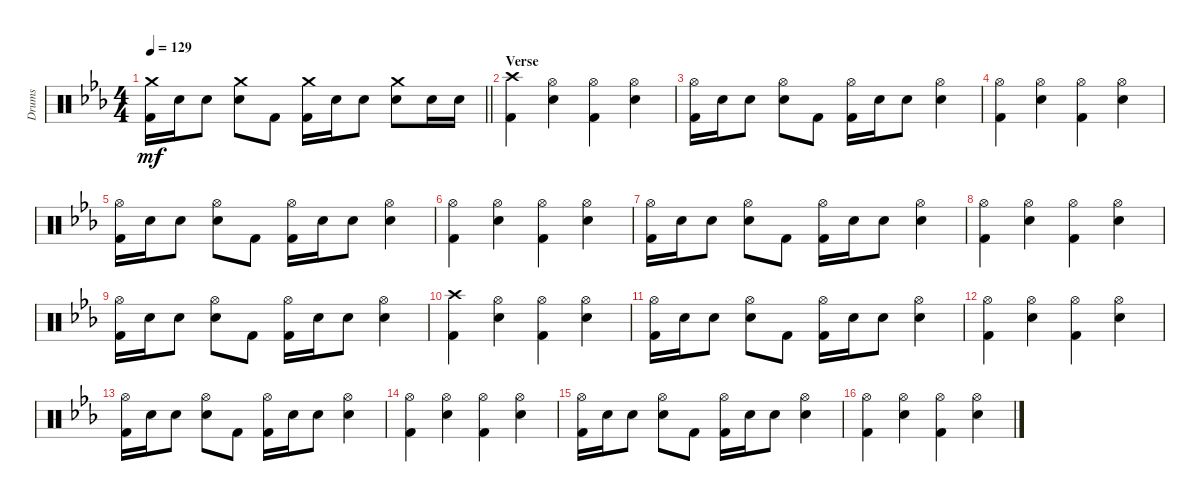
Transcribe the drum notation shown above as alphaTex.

\track ("Drums" "Drums") {instrument percussion}
\staff {score}
\articulation defaults
\ts (4 4)
\tempo 129
\clef neutral
\barLineRight lightlight
\ks eb
("Crash medium (hit)" "Kick (hit) 2").16{dy mf} "Electric Snare (hit)".16 "Electric Snare (hit)".8 ("Crash medium (hit)" "Electric Snare (hit)").8 "Kick (hit) 2".8 ("Crash medium (hit)" "Kick (hit) 2").16 "Electric Snare (hit)".16 "Electric Snare (hit)".8 ("Crash medium (hit)" "Electric Snare (hit)").8 "Electric Snare (hit)".16 "Electric Snare (hit)".16 |
\section ("" "Verse")
("Crash high (hit)" "Kick (hit) 2").4 ("Hi-Hat (open)" "Electric Snare (hit)").4 ("Hi-Hat (open)" "Kick (hit) 2").4 ("Hi-Hat (open)" "Electric Snare (hit)").4 |
("Hi-Hat (open)" "Kick (hit) 2").16 "Electric Snare (hit)".16 "Electric Snare (hit)".8 ("Hi-Hat (open)" "Electric Snare (hit)").8 "Kick (hit) 2".8 ("Hi-Hat (open)" "Kick (hit) 2").16 "Electric Snare (hit)".16 "Electric Snare (hit)".8 ("Hi-Hat (open)" "Electric Snare (hit)").4 |
("Hi-Hat (open)" "Kick (hit) 2").4 ("Hi-Hat (open)" "Electric Snare (hit)").4 ("Hi-Hat (open)" "Kick (hit) 2").4 ("Hi-Hat (open)" "Electric Snare (hit)").4 |
("Hi-Hat (open)" "Kick (hit) 2").16 "Electric Snare (hit)".16 "Electric Snare (hit)".8 ("Hi-Hat (open)" "Electric Snare (hit)").8 "Kick (hit) 2".8 ("Hi-Hat (open)" "Kick (hit) 2").16 "Electric Snare (hit)".16 "Electric Snare (hit)".8 ("Hi-Hat (open)" "Electric Snare (hit)").4 |
("Hi-Hat (open)" "Kick (hit) 2").4 ("Hi-Hat (open)" "Electric Snare (hit)").4 ("Hi-Hat (open)" "Kick (hit) 2").4 ("Hi-Hat (open)" "Electric Snare (hit)").4 |
("Hi-Hat (open)" "Kick (hit) 2").16 "Electric Snare (hit)".16 "Electric Snare (hit)".8 ("Hi-Hat (open)" "Electric Snare (hit)").8 "Kick (hit) 2".8 ("Hi-Hat (open)" "Kick (hit) 2").16 "Electric Snare (hit)".16 "Electric Snare (hit)".8 ("Hi-Hat (open)" "Electric Snare (hit)").4 |
("Hi-Hat (open)" "Kick (hit) 2").4 ("Hi-Hat (open)" "Electric Snare (hit)").4 ("Hi-Hat (open)" "Kick (hit) 2").4 ("Hi-Hat (open)" "Electric Snare (hit)").4 |
("Hi-Hat (open)" "Kick (hit) 2").16 "Electric Snare (hit)".16 "Electric Snare (hit)".8 ("Hi-Hat (open)" "Electric Snare (hit)").8 "Kick (hit) 2".8 ("Hi-Hat (open)" "Kick (hit) 2").16 "Electric Snare (hit)".16 "Electric Snare (hit)".8 ("Hi-Hat (open)" "Electric Snare (hit)").4 |
("Crash high (hit)" "Kick (hit) 2").4 ("Hi-Hat (open)" "Electric Snare (hit)").4 ("Hi-Hat (open)" "Kick (hit) 2").4 ("Hi-Hat (open)" "Electric Snare (hit)").4 |
("Hi-Hat (open)" "Kick (hit) 2").16 "Electric Snare (hit)".16 "Electric Snare (hit)".8 ("Hi-Hat (open)" "Electric Snare (hit)").8 "Kick (hit) 2".8 ("Hi-Hat (open)" "Kick (hit) 2").16 "Electric Snare (hit)".16 "Electric Snare (hit)".8 ("Hi-Hat (open)" "Electric Snare (hit)").4 |
("Hi-Hat (open)" "Kick (hit) 2").4 ("Hi-Hat (open)" "Electric Snare (hit)").4 ("Hi-Hat (open)" "Kick (hit) 2").4 ("Hi-Hat (open)" "Electric Snare (hit)").4 |
("Hi-Hat (open)" "Kick (hit) 2").16 "Electric Snare (hit)".16 "Electric Snare (hit)".8 ("Hi-Hat (open)" "Electric Snare (hit)").8 "Kick (hit) 2".8 ("Hi-Hat (open)" "Kick (hit) 2").16 "Electric Snare (hit)".16 "Electric Snare (hit)".8 ("Hi-Hat (open)" "Electric Snare (hit)").4 |
("Hi-Hat (open)" "Kick (hit) 2").4 ("Hi-Hat (open)" "Electric Snare (hit)").4 ("Hi-Hat (open)" "Kick (hit) 2").4 ("Hi-Hat (open)" "Electric Snare (hit)").4 |
("Hi-Hat (open)" "Kick (hit) 2").16 "Electric Snare (hit)".16 "Electric Snare (hit)".8 ("Hi-Hat (open)" "Electric Snare (hit)").8 "Kick (hit) 2".8 ("Hi-Hat (open)" "Kick (hit) 2").16 "Electric Snare (hit)".16 "Electric Snare (hit)".8 ("Hi-Hat (open)" "Electric Snare (hit)").4 |
("Hi-Hat (open)" "Kick (hit) 2").4 ("Hi-Hat (open)" "Electric Snare (hit)").4 ("Hi-Hat (open)" "Kick (hit) 2").4 ("Hi-Hat (open)" "Electric Snare (hit)").4
